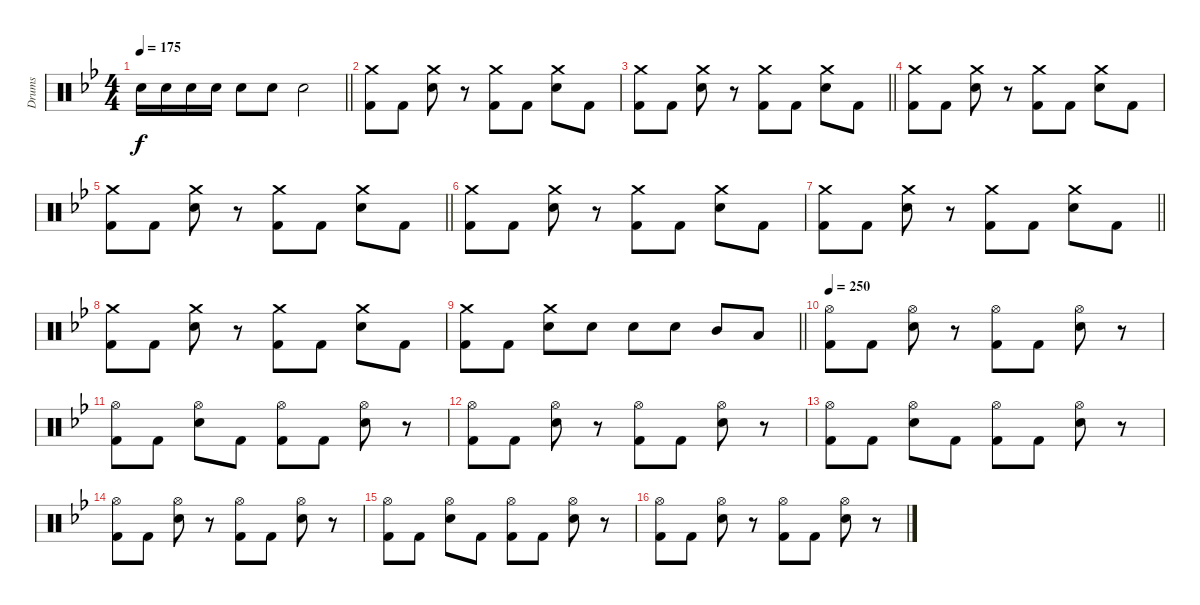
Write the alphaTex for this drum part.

\track ("Drums" "Drums") {instrument percussion}
\staff {score}
\articulation defaults
\ts (4 4)
\tempo 175
\clef neutral
\barLineRight lightlight
\ks bb "Electric Snare (hit)".16{dy f} "Electric Snare (hit)".16 "Electric Snare (hit)".16 "Electric Snare (hit)".16 "Electric Snare (hit)".8 "Electric Snare (hit)".8 "Electric Snare (hit)".2
|
("Crash medium (hit)" "Kick (hit) 2").8 "Kick (hit) 2".8 ("Crash medium (hit)" "Electric Snare (hit)").8 r.8 ("Crash medium (hit)" "Kick (hit) 2").8 "Kick (hit) 2".8 ("Crash medium (hit)" "Electric Snare (hit)").8 "Kick (hit) 2".8 |
\barLineRight lightlight
("Crash medium (hit)" "Kick (hit) 2").8 "Kick (hit) 2".8 ("Crash medium (hit)" "Electric Snare (hit)").8 r.8 ("Crash medium (hit)" "Kick (hit) 2").8 "Kick (hit) 2".8 ("Crash medium (hit)" "Electric Snare (hit)").8 "Kick (hit) 2".8 |
("Crash medium (hit)" "Kick (hit) 2").8 "Kick (hit) 2".8 ("Crash medium (hit)" "Electric Snare (hit)").8 r.8 ("Crash medium (hit)" "Kick (hit) 2").8 "Kick (hit) 2".8 ("Crash medium (hit)" "Electric Snare (hit)").8 "Kick (hit) 2".8 |
\barLineRight lightlight
("Crash medium (hit)" "Kick (hit) 2").8 "Kick (hit) 2".8 ("Crash medium (hit)" "Electric Snare (hit)").8 r.8 ("Crash medium (hit)" "Kick (hit) 2").8 "Kick (hit) 2".8 ("Crash medium (hit)" "Electric Snare (hit)").8 "Kick (hit) 2".8 |
("Crash medium (hit)" "Kick (hit) 2").8 "Kick (hit) 2".8 ("Crash medium (hit)" "Electric Snare (hit)").8 r.8 ("Crash medium (hit)" "Kick (hit) 2").8 "Kick (hit) 2".8 ("Crash medium (hit)" "Electric Snare (hit)").8 "Kick (hit) 2".8 |
\barLineRight lightlight
("Crash medium (hit)" "Kick (hit) 2").8 "Kick (hit) 2".8 ("Crash medium (hit)" "Electric Snare (hit)").8 r.8 ("Crash medium (hit)" "Kick (hit) 2").8 "Kick (hit) 2".8 ("Crash medium (hit)" "Electric Snare (hit)").8 "Kick (hit) 2".8 |
("Crash medium (hit)" "Kick (hit) 2").8 "Kick (hit) 2".8 ("Crash medium (hit)" "Electric Snare (hit)").8 r.8 ("Crash medium (hit)" "Kick (hit) 2").8 "Kick (hit) 2".8 ("Crash medium (hit)" "Electric Snare (hit)").8 "Kick (hit) 2".8 |
\barLineRight lightlight
("Crash medium (hit)" "Kick (hit) 2").8 "Kick (hit) 2".8 ("Crash medium (hit)" "Electric Snare (hit)").8 "Electric Snare (hit)".8 "Electric Snare (hit)".8 "Electric Snare (hit)".8 "Mid Tom (hit)".8 "Low Tom (hit)".8 |
\tempo 250
("Hi-Hat (open)" "Kick (hit) 2").8 "Kick (hit) 2".8 ("Hi-Hat (open)" "Electric Snare (hit)").8 r.8 ("Hi-Hat (open)" "Kick (hit) 2").8 "Kick (hit) 2".8 ("Hi-Hat (open)" "Electric Snare (hit)").8 r.8 |
("Hi-Hat (open)" "Kick (hit) 2").8 "Kick (hit) 2".8 ("Hi-Hat (open)" "Electric Snare (hit)").8 "Kick (hit) 2".8 ("Hi-Hat (open)" "Kick (hit) 2").8 "Kick (hit) 2".8 ("Hi-Hat (open)" "Electric Snare (hit)").8 r.8 |
("Hi-Hat (open)" "Kick (hit) 2").8 "Kick (hit) 2".8 ("Hi-Hat (open)" "Electric Snare (hit)").8 r.8 ("Hi-Hat (open)" "Kick (hit) 2").8 "Kick (hit) 2".8 ("Hi-Hat (open)" "Electric Snare (hit)").8 r.8 |
("Hi-Hat (open)" "Kick (hit) 2").8 "Kick (hit) 2".8 ("Hi-Hat (open)" "Electric Snare (hit)").8 "Kick (hit) 2".8 ("Hi-Hat (open)" "Kick (hit) 2").8 "Kick (hit) 2".8 ("Hi-Hat (open)" "Electric Snare (hit)").8 r.8 |
("Hi-Hat (open)" "Kick (hit) 2").8 "Kick (hit) 2".8 ("Hi-Hat (open)" "Electric Snare (hit)").8 r.8 ("Hi-Hat (open)" "Kick (hit) 2").8 "Kick (hit) 2".8 ("Hi-Hat (open)" "Electric Snare (hit)").8 r.8 |
("Hi-Hat (open)" "Kick (hit) 2").8 "Kick (hit) 2".8 ("Hi-Hat (open)" "Electric Snare (hit)").8 "Kick (hit) 2".8 ("Hi-Hat (open)" "Kick (hit) 2").8 "Kick (hit) 2".8 ("Hi-Hat (open)" "Electric Snare (hit)").8 r.8 |
("Hi-Hat (open)" "Kick (hit) 2").8 "Kick (hit) 2".8 ("Hi-Hat (open)" "Electric Snare (hit)").8 r.8 ("Hi-Hat (open)" "Kick (hit) 2").8 "Kick (hit) 2".8 ("Hi-Hat (open)" "Electric Snare (hit)").8 r.8
